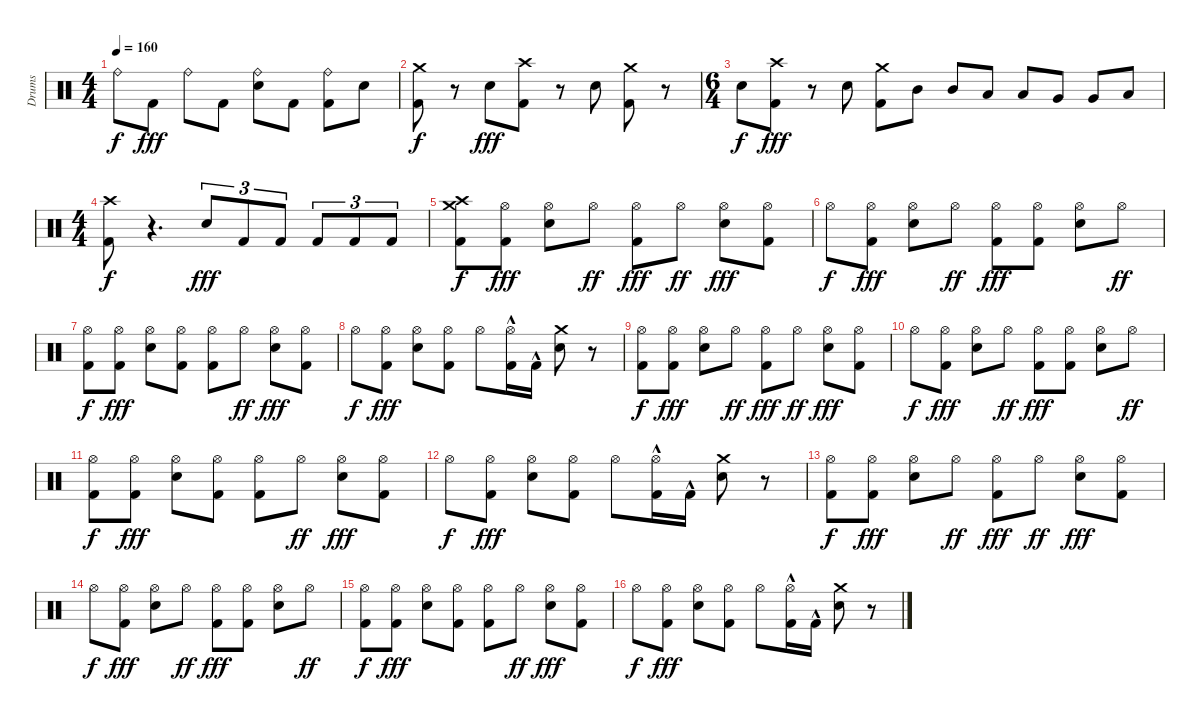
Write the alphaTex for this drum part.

\track ("Drums" "Drums") {instrument percussion}
\staff {score}
\articulation defaults
\ts (4 4)
\tempo 160
\clef neutral
\ks c "Ride (bell)".8{dy f} "Kick (hit) 2".8{dy fff} "Ride (bell)".8 "Kick (hit) 2".8
("Ride (bell)" "Snare (hit) 2").8 "Kick (hit) 2".8 ("Ride (bell)" "Kick (hit) 2").8 "Snare (hit) 2".8 |
("Kick (hit) 2" "Crash medium (hit)").8{dy f} r.8 "Snare (hit) 2".8{dy fff} ("Crash high (hit)" "Kick (hit) 2").8 r.8 "Snare (hit) 2".8 ("Crash medium (hit)" "Kick (hit) 2").8 r.8 |
\ts (6 4)
"Snare (hit) 2".8{dy f} ("Crash high (hit)" "Kick (hit) 2").8{dy fff} r.8 "Snare (hit) 2".8 ("Crash medium (hit)" "Kick (hit) 2").8 "Mid Tom (hit)".8 "Mid Tom (hit)".8 "Low Tom (hit)".8 "Low Tom (hit)".8 "Very Low Tom (hit)".8 "Very Low Tom (hit)".8 "Low Floor Tom (hit)".8 |
\ts (4 4)
("Crash high (hit)" "Kick (hit) 2").8{dy f} r.4{d} "Snare (hit) 2".8{tu (3 2) dy fff} "Kick (hit) 2".8{tu (3 2)} "Kick (hit) 2".8{tu (3 2)} "Kick (hit) 2".8{tu (3 2)} "Kick (hit) 2".8{tu (3 2)} "Kick (hit) 2".8{tu (3 2)} |
("Crash high (hit)" "Crash medium (hit)" "Kick (hit) 2").8{dy f} ("Hi-Hat (open)" "Kick (hit) 2").8{dy fff} ("Hi-Hat (open)" "Snare (hit) 2").8 "Hi-Hat (open)".8{dy ff} ("Hi-Hat (open)" "Kick (hit) 2").8{dy fff} "Hi-Hat (open)".8{dy ff} ("Hi-Hat (open)" "Snare (hit) 2").8{dy fff} ("Hi-Hat (open)" "Kick (hit) 2").8 |
"Hi-Hat (open)".8{dy f} ("Hi-Hat (open)" "Kick (hit) 2").8{dy fff} ("Hi-Hat (open)" "Snare (hit) 2").8 "Hi-Hat (open)".8{dy ff} ("Hi-Hat (open)" "Kick (hit) 2").8{dy fff} ("Hi-Hat (open)" "Kick (hit) 2").8 ("Hi-Hat (open)" "Snare (hit) 2").8 "Hi-Hat (open)".8{dy ff} |
("Hi-Hat (open)" "Kick (hit) 2").8{dy f} ("Hi-Hat (open)" "Kick (hit) 2").8{dy fff} ("Hi-Hat (open)" "Snare (hit) 2").8 ("Hi-Hat (open)" "Kick (hit) 2").8 ("Hi-Hat (open)" "Kick (hit) 2").8 "Hi-Hat (open)".8{dy ff} ("Hi-Hat (open)" "Snare (hit) 2").8{dy fff} ("Hi-Hat (open)" "Kick (hit) 2").8 |
"Hi-Hat (open)".8{dy f} ("Hi-Hat (open)" "Kick (hit) 2").8{dy fff} ("Hi-Hat (open)" "Snare (hit) 2").8 ("Hi-Hat (open)" "Kick (hit) 2").8 "Hi-Hat (open)".8 ("Hi-Hat (open)"{hac} "Kick (hit) 2").16 "Kick (hit) 2"{hac}.16 ("Crash medium (hit)" "Snare (hit) 2").8 r.8 |
("Hi-Hat (open)" "Kick (hit) 2").8{dy f} ("Hi-Hat (open)" "Kick (hit) 2").8{dy fff} ("Hi-Hat (open)" "Snare (hit) 2").8 "Hi-Hat (open)".8{dy ff} ("Hi-Hat (open)" "Kick (hit) 2").8{dy fff} "Hi-Hat (open)".8{dy ff} ("Hi-Hat (open)" "Snare (hit) 2").8{dy fff} ("Hi-Hat (open)" "Kick (hit) 2").8 |
"Hi-Hat (open)".8{dy f} ("Hi-Hat (open)" "Kick (hit) 2").8{dy fff} ("Hi-Hat (open)" "Snare (hit) 2").8 "Hi-Hat (open)".8{dy ff} ("Hi-Hat (open)" "Kick (hit) 2").8{dy fff} ("Hi-Hat (open)" "Kick (hit) 2").8 ("Hi-Hat (open)" "Snare (hit) 2").8 "Hi-Hat (open)".8{dy ff} |
("Hi-Hat (open)" "Kick (hit) 2").8{dy f} ("Hi-Hat (open)" "Kick (hit) 2").8{dy fff} ("Hi-Hat (open)" "Snare (hit) 2").8 ("Hi-Hat (open)" "Kick (hit) 2").8 ("Hi-Hat (open)" "Kick (hit) 2").8 "Hi-Hat (open)".8{dy ff} ("Hi-Hat (open)" "Snare (hit) 2").8{dy fff} ("Hi-Hat (open)" "Kick (hit) 2").8 |
"Hi-Hat (open)".8{dy f} ("Hi-Hat (open)" "Kick (hit) 2").8{dy fff} ("Hi-Hat (open)" "Snare (hit) 2").8 ("Hi-Hat (open)" "Kick (hit) 2").8 "Hi-Hat (open)".8 ("Hi-Hat (open)"{hac} "Kick (hit) 2").16 "Kick (hit) 2"{hac}.16 ("Crash medium (hit)" "Snare (hit) 2").8 r.8 |
("Hi-Hat (open)" "Kick (hit) 2").8{dy f} ("Hi-Hat (open)" "Kick (hit) 2").8{dy fff} ("Hi-Hat (open)" "Snare (hit) 2").8 "Hi-Hat (open)".8{dy ff} ("Hi-Hat (open)" "Kick (hit) 2").8{dy fff} "Hi-Hat (open)".8{dy ff} ("Hi-Hat (open)" "Snare (hit) 2").8{dy fff} ("Hi-Hat (open)" "Kick (hit) 2").8 |
"Hi-Hat (open)".8{dy f} ("Hi-Hat (open)" "Kick (hit) 2").8{dy fff} ("Hi-Hat (open)" "Snare (hit) 2").8 "Hi-Hat (open)".8{dy ff} ("Hi-Hat (open)" "Kick (hit) 2").8{dy fff} ("Hi-Hat (open)" "Kick (hit) 2").8 ("Hi-Hat (open)" "Snare (hit) 2").8 "Hi-Hat (open)".8{dy ff} |
("Hi-Hat (open)" "Kick (hit) 2").8{dy f} ("Hi-Hat (open)" "Kick (hit) 2").8{dy fff} ("Hi-Hat (open)" "Snare (hit) 2").8 ("Hi-Hat (open)" "Kick (hit) 2").8 ("Hi-Hat (open)" "Kick (hit) 2").8 "Hi-Hat (open)".8{dy ff} ("Hi-Hat (open)" "Snare (hit) 2").8{dy fff} ("Hi-Hat (open)" "Kick (hit) 2").8 |
"Hi-Hat (open)".8{dy f} ("Hi-Hat (open)" "Kick (hit) 2").8{dy fff} ("Hi-Hat (open)" "Snare (hit) 2").8 ("Hi-Hat (open)" "Kick (hit) 2").8 "Hi-Hat (open)".8 ("Hi-Hat (open)"{hac} "Kick (hit) 2").16 "Kick (hit) 2"{hac}.16 ("Crash medium (hit)" "Snare (hit) 2").8 r.8
